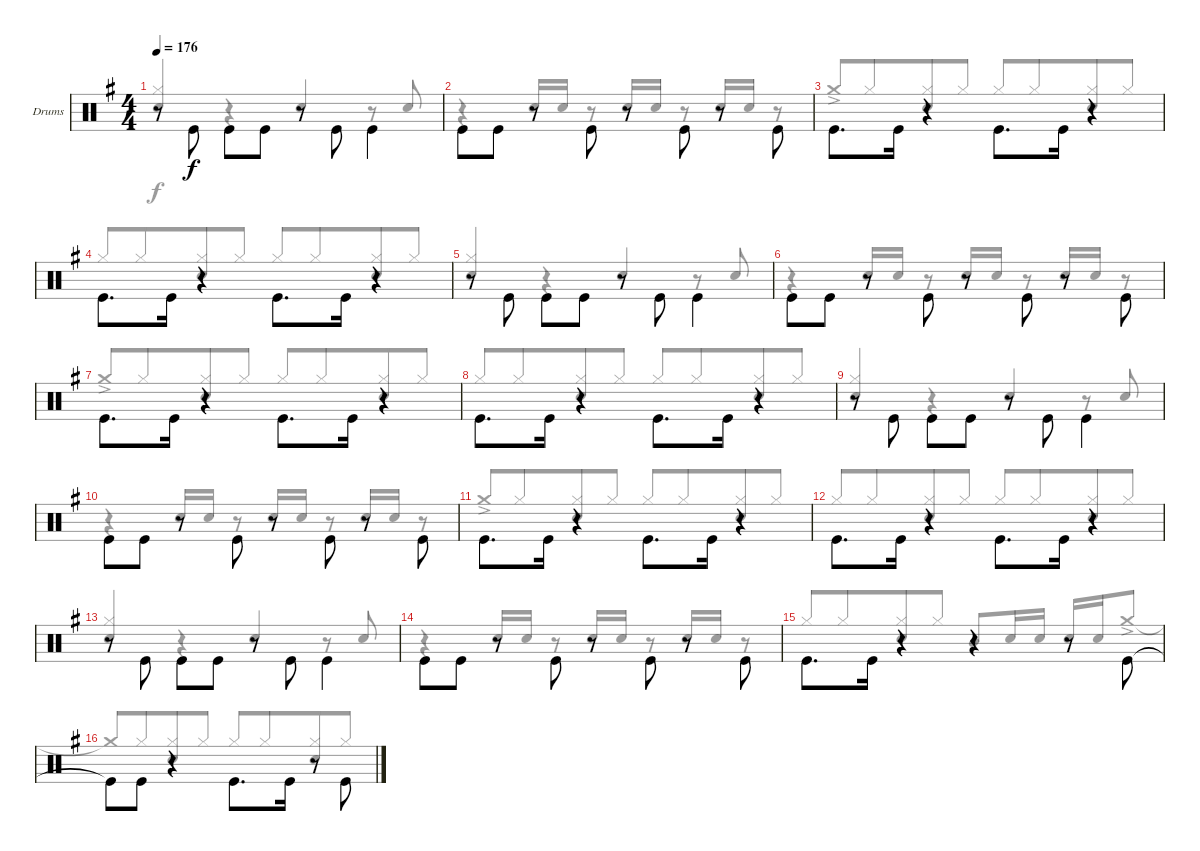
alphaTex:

\bracketExtendMode groupsimilarinstruments
\firstSystemTrackNameOrientation horizontal
\otherSystemsTrackNameOrientation horizontal
\track ("Drums" "Drums") {instrument percussion}
\staff {score}
\articulation defaults
\voice
\ts (4 4)
\tempo 176
\clef neutral
\scale
1.04288
\ks g
r.8{dy f} "Kick (hit)".8{beam invert} "Kick (hit)".8{beam invert} "Kick (hit)".8 r.8{beam invert} "Kick (hit)".8{beam invert} "Kick (hit)".4{beam invert} |
\scale
0.957125 "Kick (hit)".8{beam invert} "Kick (hit)".8 r.8{beam invert} "Kick (hit)".8{beam invert} r.8{beam invert} "Kick (hit)".8{beam invert} r.8{beam invert} "Kick (hit)".8{beam invert} |
\scale
1.04288 "Kick (hit)".8{d beam invert} "Kick (hit)".16 r.4{beam invert} "Kick (hit)".8{d beam invert} "Kick (hit)".16 r.4{beam invert} |
\scale
0.957125 "Kick (hit)".8{d beam invert} "Kick (hit)".16 r.4{beam invert} "Kick (hit)".8{d beam invert} "Kick (hit)".16 r.4{beam invert} |
\scale
1.04288 r.8 "Kick (hit)".8{beam invert} "Kick (hit)".8{beam invert} "Kick (hit)".8 r.8{beam invert} "Kick (hit)".8{beam invert} "Kick (hit)".4{beam invert} |
\scale
0.957125 "Kick (hit)".8{beam invert} "Kick (hit)".8 r.8{beam invert} "Kick (hit)".8{beam invert} r.8{beam invert} "Kick (hit)".8{beam invert} r.8{beam invert} "Kick (hit)".8{beam invert} |
\scale
1.04288 "Kick (hit)".8{d beam invert} "Kick (hit)".16 r.4{beam invert} "Kick (hit)".8{d beam invert} "Kick (hit)".16 r.4{beam invert} |
\scale
0.957125 "Kick (hit)".8{d beam invert} "Kick (hit)".16 r.4{beam invert} "Kick (hit)".8{d beam invert} "Kick (hit)".16 r.4{beam invert} |
\scale
1.04288 r.8 "Kick (hit)".8{beam invert} "Kick (hit)".8{beam invert} "Kick (hit)".8 r.8{beam invert} "Kick (hit)".8{beam invert} "Kick (hit)".4{beam invert} |
\scale
0.957125 "Kick (hit)".8{beam invert} "Kick (hit)".8 r.8{beam invert} "Kick (hit)".8{beam invert} r.8{beam invert} "Kick (hit)".8{beam invert} r.8{beam invert} "Kick (hit)".8{beam invert} |
\scale
1.04288 "Kick (hit)".8{d beam invert} "Kick (hit)".16 r.4{beam invert} "Kick (hit)".8{d beam invert} "Kick (hit)".16 r.4{beam invert} |
\scale
0.957125 "Kick (hit)".8{d beam invert} "Kick (hit)".16 r.4{beam invert} "Kick (hit)".8{d beam invert} "Kick (hit)".16 r.4{beam invert} |
\scale
1.04288 r.8 "Kick (hit)".8{beam invert} "Kick (hit)".8{beam invert} "Kick (hit)".8 r.8{beam invert} "Kick (hit)".8{beam invert} "Kick (hit)".4{beam invert} |
\scale
0.957125 "Kick (hit)".8{beam invert} "Kick (hit)".8 r.8{beam invert} "Kick (hit)".8{beam invert} r.8{beam invert} "Kick (hit)".8{beam invert} r.8{beam invert} "Kick (hit)".8{beam invert} |
\scale
1.04288 "Kick (hit)".8{d beam invert} "Kick (hit)".16 r.4{beam invert} r.4{beam invert} r.8{beam invert} "Kick (hit)".8{beam invert} |
\scale
0.957125 "Kick (hit)"{t}.8{beam invert} "Kick (hit)".8 r.4 "Kick (hit)".8{d beam invert} "Kick (hit)".16 r.8{beam invert} "Kick (hit)".8{beam invert}
\voice
\clef neutral
\ottava regular
\simile none
\scale
1.04288
\ks g
("Hi-Hat (closed)" "Snare (hit) 2").4{dy f beam invert} r.4 "Snare (hit) 2".4{beam invert} r.8 "Snare (hit) 2".8{beam invert} |
\scale
0.957125 r.4 "Snare (hit) 2".16{beam invert} "Snare (hit) 2".16 r.8 "Snare (hit) 2".16{beam invert} "Snare (hit) 2".16 r.8 "Snare (hit) 2".16{beam invert} "Snare (hit) 2".16 r.8 |
\scale
1.04288 "Crash medium (hit)"{ac}.8{beam invert beam merge} "Hi-Hat (closed)".8{beam merge} ("Hi-Hat (closed)" "Snare (hit) 2").8{beam merge} "Hi-Hat (closed)".8{beam split} "Hi-Hat (closed)".8{beam invert beam merge} "Hi-Hat (closed)".8{beam merge} ("Hi-Hat (closed)" "Snare (hit) 2").8{beam merge} "Hi-Hat (closed)".8{beam merge} |
\scale
0.957125 "Hi-Hat (closed)".8{beam invert beam merge} "Hi-Hat (closed)".8{beam merge} ("Hi-Hat (closed)" "Snare (hit) 2").8{beam merge} "Hi-Hat (closed)".8{beam split} "Hi-Hat (closed)".8{beam invert beam merge} "Hi-Hat (closed)".8{beam merge} ("Hi-Hat (closed)" "Snare (hit) 2").8{beam merge} "Hi-Hat (closed)".8{beam merge} |
\scale
1.04288 ("Hi-Hat (closed)" "Snare (hit) 2").4{beam invert} r.4 "Snare (hit) 2".4{beam invert} r.8 "Snare (hit) 2".8{beam invert} |
\scale
0.957125 r.4 "Snare (hit) 2".16{beam invert} "Snare (hit) 2".16 r.8 "Snare (hit) 2".16{beam invert} "Snare (hit) 2".16 r.8 "Snare (hit) 2".16{beam invert} "Snare (hit) 2".16 r.8 |
\scale
1.04288 "Crash medium (hit)"{ac}.8{beam invert beam merge} "Hi-Hat (closed)".8{beam merge} ("Hi-Hat (closed)" "Snare (hit) 2").8{beam merge} "Hi-Hat (closed)".8{beam split} "Hi-Hat (closed)".8{beam invert beam merge} "Hi-Hat (closed)".8{beam merge} ("Hi-Hat (closed)" "Snare (hit) 2").8{beam merge} "Hi-Hat (closed)".8{beam merge} |
\scale
0.957125 "Hi-Hat (closed)".8{beam invert beam merge} "Hi-Hat (closed)".8{beam merge} ("Hi-Hat (closed)" "Snare (hit) 2").8{beam merge} "Hi-Hat (closed)".8{beam split} "Hi-Hat (closed)".8{beam invert beam merge} "Hi-Hat (closed)".8{beam merge} ("Hi-Hat (closed)" "Snare (hit) 2").8{beam merge} "Hi-Hat (closed)".8{beam merge} |
\scale
1.04288 ("Hi-Hat (closed)" "Snare (hit) 2").4{beam invert} r.4 "Snare (hit) 2".4{beam invert} r.8 "Snare (hit) 2".8{beam invert} |
\scale
0.957125 r.4 "Snare (hit) 2".16{beam invert} "Snare (hit) 2".16 r.8 "Snare (hit) 2".16{beam invert} "Snare (hit) 2".16 r.8 "Snare (hit) 2".16{beam invert} "Snare (hit) 2".16 r.8 |
\scale
1.04288 "Crash medium (hit)"{ac}.8{beam invert beam merge} "Hi-Hat (closed)".8{beam merge} ("Hi-Hat (closed)" "Snare (hit) 2").8{beam merge} "Hi-Hat (closed)".8{beam split} "Hi-Hat (closed)".8{beam invert beam merge} "Hi-Hat (closed)".8{beam merge} ("Hi-Hat (closed)" "Snare (hit) 2").8{beam merge} "Hi-Hat (closed)".8{beam merge} |
\scale
0.957125 "Hi-Hat (closed)".8{beam invert beam merge} "Hi-Hat (closed)".8{beam merge} ("Hi-Hat (closed)" "Snare (hit) 2").8{beam merge} "Hi-Hat (closed)".8{beam split} "Hi-Hat (closed)".8{beam invert beam merge} "Hi-Hat (closed)".8{beam merge} ("Hi-Hat (closed)" "Snare (hit) 2").8{beam merge} "Hi-Hat (closed)".8{beam merge} |
\scale
1.04288 ("Hi-Hat (closed)" "Snare (hit) 2").4{beam invert} r.4 "Snare (hit) 2".4{beam invert} r.8 "Snare (hit) 2".8{beam invert} |
\scale
0.957125 r.4 "Snare (hit) 2".16{beam invert} "Snare (hit) 2".16 r.8 "Snare (hit) 2".16{beam invert} "Snare (hit) 2".16 r.8 "Snare (hit) 2".16{beam invert} "Snare (hit) 2".16 r.8 |
\scale
1.04288 "Hi-Hat (closed)".8{beam invert beam merge} "Hi-Hat (closed)".8{beam merge} ("Hi-Hat (closed)" "Snare (hit) 2").8{beam merge} "Hi-Hat (closed)".8{beam split} "Mid Tom (hit)".8{beam invert} "Snare (hit) 2".16 "Snare (hit) 2".16 "Snare (hit) 2".16{beam invert} "Snare (hit) 2".16 "Crash medium (hit)"{ac}.8 |
\scale
0.957125 "Crash medium (hit)"{t}.8{beam invert} "Hi-Hat (closed)".8{beam merge} ("Hi-Hat (closed)" "Snare (hit) 2").8{beam merge} "Hi-Hat (closed)".8{beam split} "Hi-Hat (closed)".8{beam invert beam merge} "Hi-Hat (closed)".8{beam merge} ("Hi-Hat (closed)" "Snare (hit) 2").8{beam merge} "Hi-Hat (closed)".8{beam split}
